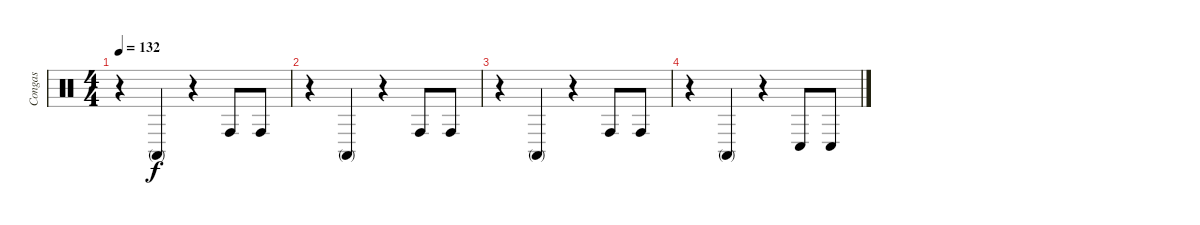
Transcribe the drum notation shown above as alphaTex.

\track ("Congas" "Congas") {instrument percussion}
\staff {score}
\articulation defaults
\ts (4 4)
\tempo 132
\clef neutral
\ks c
r.4{dy f} "Conga high (mute)".4 r.4 "Conga high (hit)".8 "Conga high (hit)".8 |
r.4 "Conga high (mute)".4 r.4 "Conga high (hit)".8 "Conga high (hit)".8 |
r.4 "Conga high (mute)".4 r.4 "Conga high (hit)".8 "Conga high (hit)".8 |
r.4 "Conga high (mute)".4 r.4 "Conga low (hit)".8 "Conga low (hit)".8
